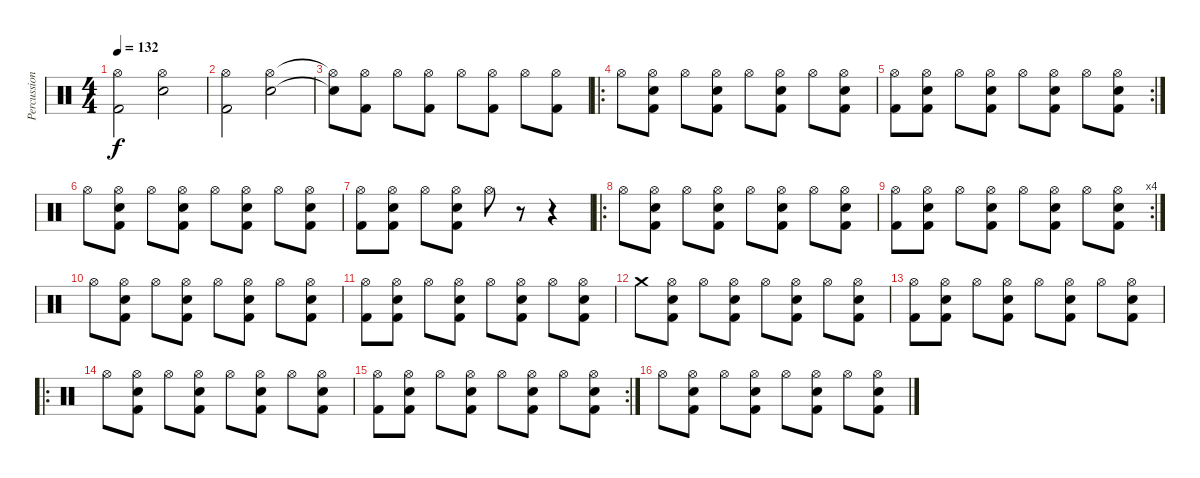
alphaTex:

\track ("Percussions" "Percussion") {instrument percussion}
\staff {score}
\articulation defaults
\ts (4 4)
\tempo 132
\clef neutral
\ks c
("Hi-Hat (open)" "Kick (hit) 2").2{dy f} ("Hi-Hat (open)" "Electric Snare (hit)").2 |
("Hi-Hat (open)" "Kick (hit) 2").2 ("Hi-Hat (open)" "Electric Snare (hit)").2 |
("Hi-Hat (open)"{t} "Snare (hit)"{t}).8 ("Hi-Hat (open)" "Kick (hit) 2").8 "Hi-Hat (open)".8 ("Hi-Hat (open)" "Kick (hit) 2").8 "Hi-Hat (open)".8 ("Hi-Hat (open)" "Kick (hit) 2").8 "Hi-Hat (open)".8 ("Hi-Hat (open)" "Kick (hit) 2").8 |
\ro "Hi-Hat (open)".8
("Hi-Hat (open)" "Electric Snare (hit)" "Kick (hit) 2").8 "Hi-Hat (open)".8 ("Hi-Hat (open)" "Electric Snare (hit)" "Kick (hit) 2").8 "Hi-Hat (open)".8 ("Hi-Hat (open)" "Electric Snare (hit)" "Kick (hit) 2").8 "Hi-Hat (open)".8 ("Hi-Hat (open)" "Electric Snare (hit)" "Kick (hit) 2").8 |
\rc 2
("Hi-Hat (open)" "Kick (hit) 2").8 ("Hi-Hat (open)" "Electric Snare (hit)" "Kick (hit) 2").8 "Hi-Hat (open)".8 ("Hi-Hat (open)" "Electric Snare (hit)" "Kick (hit) 2").8 "Hi-Hat (open)".8 ("Hi-Hat (open)" "Electric Snare (hit)" "Kick (hit) 2").8 "Hi-Hat (open)".8 ("Hi-Hat (open)" "Electric Snare (hit)" "Kick (hit) 2").8 |
"Hi-Hat (open)".8 ("Hi-Hat (open)" "Electric Snare (hit)" "Kick (hit) 2").8 "Hi-Hat (open)".8 ("Hi-Hat (open)" "Electric Snare (hit)" "Kick (hit) 2").8 "Hi-Hat (open)".8 ("Hi-Hat (open)" "Electric Snare (hit)" "Kick (hit) 2").8 "Hi-Hat (open)".8 ("Hi-Hat (open)" "Electric Snare (hit)" "Kick (hit) 2").8 |
("Hi-Hat (open)" "Kick (hit) 2").8 ("Hi-Hat (open)" "Electric Snare (hit)" "Kick (hit) 2").8 "Hi-Hat (open)".8 ("Hi-Hat (open)" "Electric Snare (hit)" "Kick (hit) 2").8 "Hi-Hat (open)".8 r.8 r.4 |
\ro "Hi-Hat (open)".8
("Hi-Hat (open)" "Electric Snare (hit)" "Kick (hit) 2").8 "Hi-Hat (open)".8 ("Hi-Hat (open)" "Electric Snare (hit)" "Kick (hit) 2").8 "Hi-Hat (open)".8 ("Hi-Hat (open)" "Electric Snare (hit)" "Kick (hit) 2").8 "Hi-Hat (open)".8 ("Hi-Hat (open)" "Electric Snare (hit)" "Kick (hit) 2").8 |
\rc 4
("Hi-Hat (open)" "Kick (hit) 2").8 ("Hi-Hat (open)" "Electric Snare (hit)" "Kick (hit) 2").8 "Hi-Hat (open)".8 ("Hi-Hat (open)" "Electric Snare (hit)" "Kick (hit) 2").8 "Hi-Hat (open)".8 ("Hi-Hat (open)" "Electric Snare (hit)" "Kick (hit) 2").8 "Hi-Hat (open)".8 ("Hi-Hat (open)" "Electric Snare (hit)" "Kick (hit) 2").8 |
"Hi-Hat (open)".8 ("Hi-Hat (open)" "Electric Snare (hit)" "Kick (hit) 2").8 "Hi-Hat (open)".8 ("Hi-Hat (open)" "Electric Snare (hit)" "Kick (hit) 2").8 "Hi-Hat (open)".8 ("Hi-Hat (open)" "Electric Snare (hit)" "Kick (hit) 2").8 "Hi-Hat (open)".8 ("Hi-Hat (open)" "Electric Snare (hit)" "Kick (hit) 2").8 |
("Hi-Hat (open)" "Kick (hit) 2").8 ("Hi-Hat (open)" "Electric Snare (hit)" "Kick (hit) 2").8 "Hi-Hat (open)".8 ("Hi-Hat (open)" "Electric Snare (hit)" "Kick (hit) 2").8 "Hi-Hat (open)".8 ("Hi-Hat (open)" "Electric Snare (hit)" "Kick (hit) 2").8 "Hi-Hat (open)".8 ("Hi-Hat (open)" "Electric Snare (hit)" "Kick (hit) 2").8 |
"Crash medium (hit)".8 ("Hi-Hat (open)" "Electric Snare (hit)" "Kick (hit) 2").8 "Hi-Hat (open)".8 ("Hi-Hat (open)" "Electric Snare (hit)" "Kick (hit) 2").8 "Hi-Hat (open)".8 ("Hi-Hat (open)" "Electric Snare (hit)" "Kick (hit) 2").8 "Hi-Hat (open)".8 ("Hi-Hat (open)" "Electric Snare (hit)" "Kick (hit) 2").8 |
("Hi-Hat (open)" "Kick (hit) 2").8 ("Hi-Hat (open)" "Electric Snare (hit)" "Kick (hit) 2").8 "Hi-Hat (open)".8 ("Hi-Hat (open)" "Electric Snare (hit)" "Kick (hit) 2").8 "Hi-Hat (open)".8 ("Hi-Hat (open)" "Electric Snare (hit)" "Kick (hit) 2").8 "Hi-Hat (open)".8 ("Hi-Hat (open)" "Electric Snare (hit)" "Kick (hit) 2").8 |
\ro "Hi-Hat (open)".8
("Hi-Hat (open)" "Electric Snare (hit)" "Kick (hit) 2").8 "Hi-Hat (open)".8 ("Hi-Hat (open)" "Electric Snare (hit)" "Kick (hit) 2").8 "Hi-Hat (open)".8 ("Hi-Hat (open)" "Electric Snare (hit)" "Kick (hit) 2").8 "Hi-Hat (open)".8 ("Hi-Hat (open)" "Electric Snare (hit)" "Kick (hit) 2").8 |
\rc 2
("Hi-Hat (open)" "Kick (hit) 2").8 ("Hi-Hat (open)" "Electric Snare (hit)" "Kick (hit) 2").8 "Hi-Hat (open)".8 ("Hi-Hat (open)" "Electric Snare (hit)" "Kick (hit) 2").8 "Hi-Hat (open)".8 ("Hi-Hat (open)" "Electric Snare (hit)" "Kick (hit) 2").8 "Hi-Hat (open)".8 ("Hi-Hat (open)" "Electric Snare (hit)" "Kick (hit) 2").8 |
"Hi-Hat (open)".8 ("Hi-Hat (open)" "Electric Snare (hit)" "Kick (hit) 2").8 "Hi-Hat (open)".8 ("Hi-Hat (open)" "Electric Snare (hit)" "Kick (hit) 2").8 "Hi-Hat (open)".8 ("Hi-Hat (open)" "Electric Snare (hit)" "Kick (hit) 2").8 "Hi-Hat (open)".8 ("Hi-Hat (open)" "Electric Snare (hit)" "Kick (hit) 2").8
